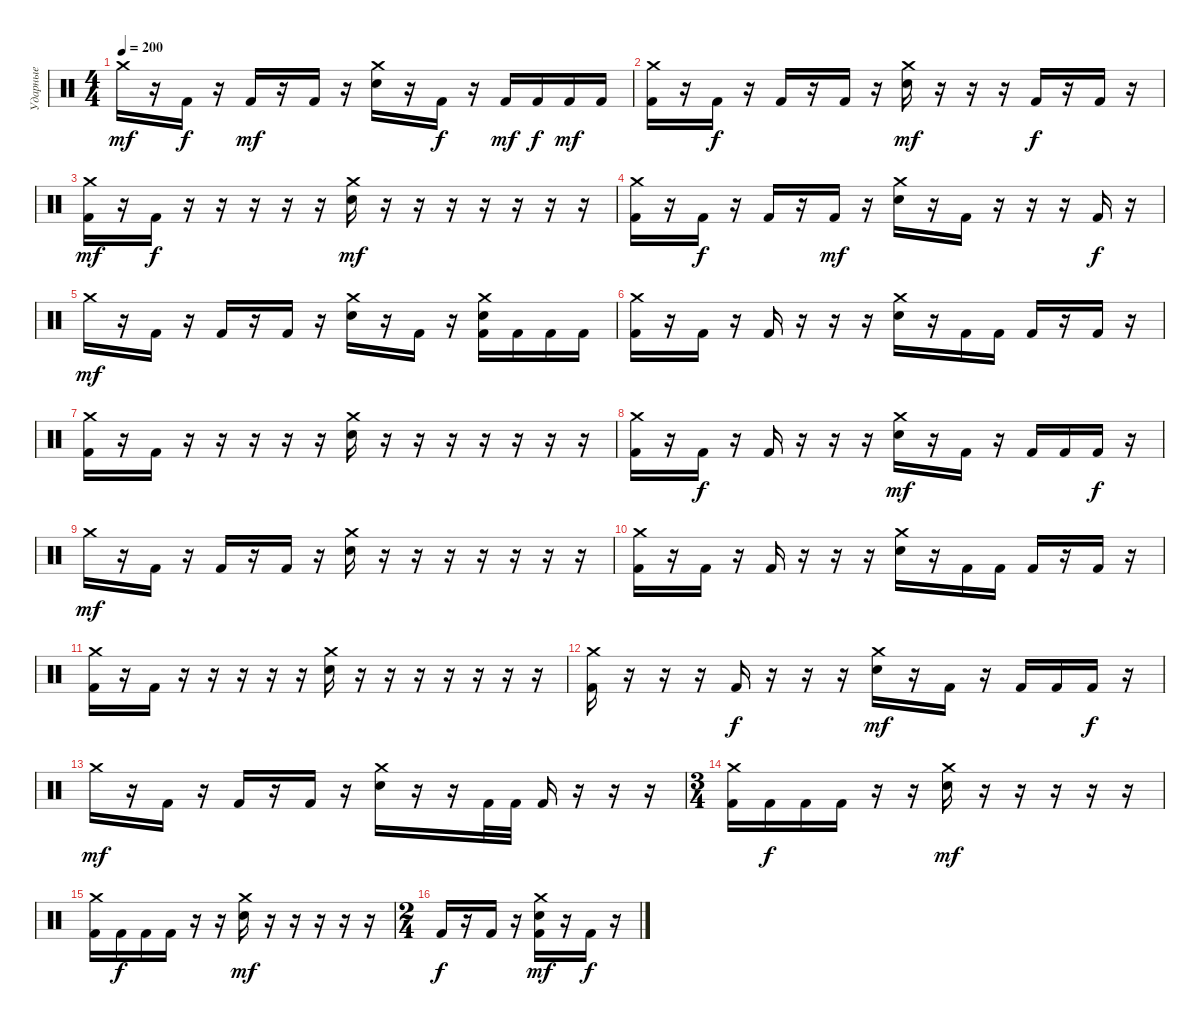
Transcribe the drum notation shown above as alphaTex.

\track ("Ударные" "Ударные") {instrument percussion bank 101}
\staff {score}
\articulation defaults
\ts (4 4)
\tempo 200
\clef neutral
\ks c "Crash medium (hit)".16{dy mf}
r.16 "Kick (hit) 2".16{dy f} r.16 "Kick (hit) 2".16{dy mf} r.16 "Kick (hit) 2".16 r.16 ("Crash medium (hit)" "Electric Snare (hit)").16 r.16 "Kick (hit) 2".16{dy f} r.16 "Kick (hit) 2".16{dy mf} "Kick (hit) 2".16{dy f} "Kick (hit) 2".16{dy mf} "Kick (hit) 2".16 |
("Crash medium (hit)" "Kick (hit) 2").16 r.16 "Kick (hit) 2".16{dy f} r.16 "Kick (hit) 2".16 r.16 "Kick (hit) 2".16 r.16 ("Crash medium (hit)" "Electric Snare (hit)").16{dy mf} r.16 r.16 r.16 "Kick (hit) 2".16{dy f} r.16 "Kick (hit) 2".16 r.16 |
("Crash medium (hit)" "Kick (hit) 2").16{dy mf} r.16 "Kick (hit) 2".16{dy f} r.16 r.16 r.16 r.16 r.16 ("Crash medium (hit)" "Electric Snare (hit)").16{dy mf} r.16 r.16 r.16 r.16 r.16 r.16 r.16 |
("Crash medium (hit)" "Kick (hit) 2").16 r.16 "Kick (hit) 2".16{dy f} r.16 "Kick (hit) 2".16 r.16 "Kick (hit) 2".16{dy mf} r.16 ("Crash medium (hit)" "Electric Snare (hit)").16 r.16 "Kick (hit) 2".16 r.16 r.16 r.16 "Kick (hit) 2".16{dy f} r.16 |
"Crash medium (hit)".16{dy mf} r.16 "Kick (hit) 2".16 r.16 "Kick (hit) 2".16 r.16 "Kick (hit) 2".16 r.16 ("Crash medium (hit)" "Electric Snare (hit)").16 r.16 "Kick (hit) 2".16 r.16 ("Crash medium (hit)" "Electric Snare (hit)" "Kick (hit) 2").16 "Kick (hit) 2".16 "Kick (hit) 2".16 "Kick (hit) 2".16 |
("Crash medium (hit)" "Kick (hit) 2").16 r.16 "Kick (hit) 2".16 r.16 "Kick (hit) 2".16 r.16 r.16 r.16 ("Crash medium (hit)" "Electric Snare (hit)").16 r.16 "Kick (hit) 2".16 "Kick (hit) 2".16 "Kick (hit) 2".16 r.16 "Kick (hit) 2".16 r.16 |
("Crash medium (hit)" "Kick (hit) 2").16 r.16 "Kick (hit) 2".16 r.16 r.16 r.16 r.16 r.16 ("Crash medium (hit)" "Electric Snare (hit)").16 r.16 r.16 r.16 r.16 r.16 r.16 r.16 |
("Crash medium (hit)" "Kick (hit) 2").16 r.16 "Kick (hit) 2".16{dy f} r.16 "Kick (hit) 2".16 r.16 r.16 r.16 ("Crash medium (hit)" "Electric Snare (hit)").16{dy mf} r.16 "Kick (hit) 2".16 r.16 "Kick (hit) 2".16 "Kick (hit) 2".16 "Kick (hit) 2".16{dy f} r.16 |
"Crash medium (hit)".16{dy mf} r.16 "Kick (hit) 2".16 r.16 "Kick (hit) 2".16 r.16 "Kick (hit) 2".16 r.16 ("Crash medium (hit)" "Electric Snare (hit)").16 r.16 r.16 r.16 r.16 r.16 r.16 r.16 |
("Crash medium (hit)" "Kick (hit) 2").16 r.16 "Kick (hit) 2".16 r.16 "Kick (hit) 2".16 r.16 r.16 r.16 ("Crash medium (hit)" "Electric Snare (hit)").16 r.16 "Kick (hit) 2".16 "Kick (hit) 2".16 "Kick (hit) 2".16 r.16 "Kick (hit) 2".16 r.16 |
("Crash medium (hit)" "Kick (hit) 2").16 r.16 "Kick (hit) 2".16 r.16 r.16 r.16 r.16 r.16 ("Crash medium (hit)" "Electric Snare (hit)").16 r.16 r.16 r.16 r.16 r.16 r.16 r.16 |
("Crash medium (hit)" "Kick (hit) 2").16 r.16 r.16 r.16 "Kick (hit) 2".16{dy f} r.16 r.16 r.16 ("Crash medium (hit)" "Electric Snare (hit)").16{dy mf} r.16 "Kick (hit) 2".16 r.16 "Kick (hit) 2".16 "Kick (hit) 2".16 "Kick (hit) 2".16{dy f} r.16 |
"Crash medium (hit)".16{dy mf} r.16 "Kick (hit) 2".16 r.16 "Kick (hit) 2".16 r.16 "Kick (hit) 2".16 r.16 ("Crash medium (hit)" "Electric Snare (hit)").16 r.16 r.16 "Kick (hit) 2".32 "Kick (hit) 2".32 "Kick (hit) 2".16 r.16 r.16 r.16 |
\ts (3 4)
("Crash medium (hit)" "Kick (hit) 2").16 "Kick (hit) 2".16{dy f} "Kick (hit) 2".16 "Kick (hit) 2".16 r.16 r.16 ("Crash medium (hit)" "Electric Snare (hit)").16{dy mf} r.16 r.16 r.16 r.16 r.16 |
("Crash medium (hit)" "Kick (hit) 2").16 "Kick (hit) 2".16{dy f} "Kick (hit) 2".16 "Kick (hit) 2".16 r.16 r.16 ("Crash medium (hit)" "Electric Snare (hit)").16{dy mf} r.16 r.16 r.16 r.16 r.16 |
\ts (2 4)
"Kick (hit) 2".16{dy f} r.16 "Kick (hit) 2".16 r.16 ("Crash medium (hit)" "Electric Snare (hit)" "Kick (hit) 2").16{dy mf} r.16 "Kick (hit) 2".16{dy f} r.16
